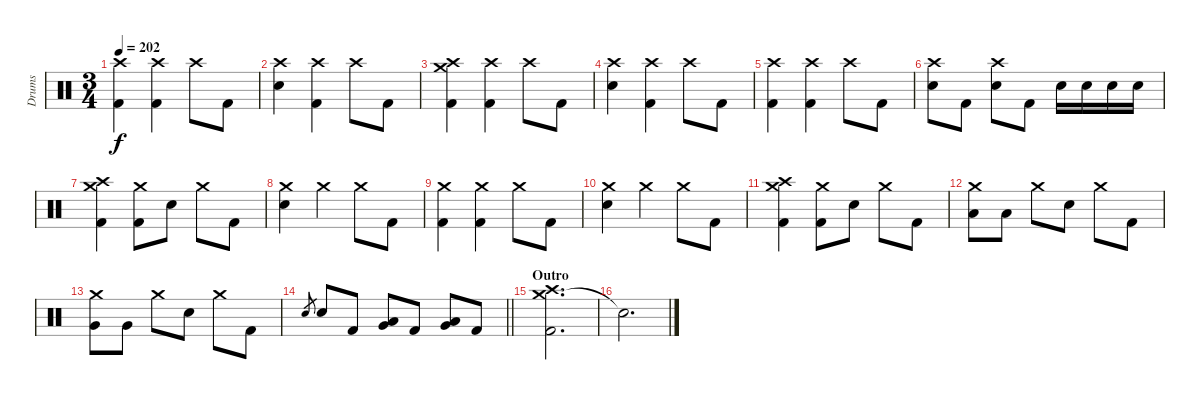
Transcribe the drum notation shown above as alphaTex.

\track ("Drums" "Drums") {instrument percussion}
\staff {score}
\articulation defaults
\ts (3 4)
\tempo 202
\clef neutral
\ks c
("Crash high (hit)" "Kick (hit) 2").4{dy f} ("Crash high (hit)" "Kick (hit) 2").4 "Crash high (hit)".8 "Kick (hit) 2".8 |
("Crash high (hit)" "Electric Snare (hit)").4 ("Crash high (hit)" "Kick (hit) 2").4 "Crash high (hit)".8 "Kick (hit) 2".8 |
("Crash medium (hit)" "Crash high (hit)" "Kick (hit) 2").4 ("Crash high (hit)" "Kick (hit) 2").4 "Crash high (hit)".8 "Kick (hit) 2".8 |
("Crash high (hit)" "Electric Snare (hit)").4 ("Crash high (hit)" "Kick (hit) 2").4 "Crash high (hit)".8 "Kick (hit) 2".8 |
("Crash high (hit)" "Kick (hit) 2").4 ("Crash high (hit)" "Kick (hit) 2").4 "Crash high (hit)".8 "Kick (hit) 2".8 |
("Crash high (hit)" "Electric Snare (hit)").8 "Kick (hit) 2".8 ("Crash high (hit)" "Electric Snare (hit)").8 "Kick (hit) 2".8 "Electric Snare (hit)".16 "Electric Snare (hit)".16 "Electric Snare (hit)".16 "Electric Snare (hit)".16 |
("Crash medium (hit)" "Crash high (hit)" "Kick (hit) 2").4 ("Crash medium (hit)" "Kick (hit) 2").8 "Electric Snare (hit)".8 "Crash medium (hit)".8 "Kick (hit) 2".8 |
("Crash medium (hit)" "Electric Snare (hit)").4 "Crash medium (hit)".4 "Crash medium (hit)".8 "Kick (hit) 2".8 |
("Crash medium (hit)" "Kick (hit) 2").4 ("Crash medium (hit)" "Kick (hit) 2").4 "Crash medium (hit)".8 "Kick (hit) 2".8 |
("Crash medium (hit)" "Electric Snare (hit)").4 "Crash medium (hit)".4 "Crash medium (hit)".8 "Kick (hit) 2".8 |
("Crash medium (hit)" "Crash high (hit)" "Kick (hit) 2").4 ("Crash medium (hit)" "Kick (hit) 2").8 "Electric Snare (hit)".8 "Crash medium (hit)".8 "Kick (hit) 2".8 |
("Crash medium (hit)" "Low Tom (hit)").8 "Low Tom (hit)".8 "Crash medium (hit)".8 "Electric Snare (hit)".8 "Crash medium (hit)".8 "Kick (hit) 2".8 |
("Crash medium (hit)" "Very Low Tom (hit)").8 "Very Low Tom (hit)".8 "Crash medium (hit)".8 "Electric Snare (hit)".8 "Crash medium (hit)".8 "Kick (hit) 2".8 |
\barLineRight lightlight "Electric Snare (hit)".8{gr} "Electric Snare (hit)".8 "Kick (hit) 2".8
("Low Tom (hit)" "Very Low Tom (hit)").8 "Kick (hit) 2".8 ("Very Low Tom (hit)" "Low Floor Tom (hit)").8 "Kick (hit) 2".8 |
\section ("" "Outro")
("Crash medium (hit)" "Crash high (hit)" "Kick (hit) 2").2{d} |
"Snare (hit)"{t}.2{d}
